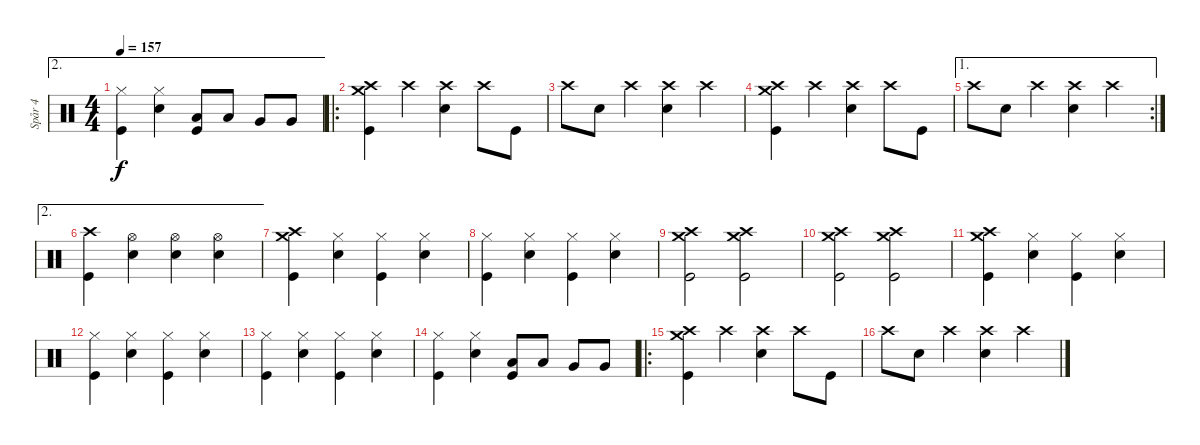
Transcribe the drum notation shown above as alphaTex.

\track ("Spår 4" "Spår 4") {instrument percussion}
\staff {score}
\articulation defaults
\ae 2
\ts (4 4)
\tempo 157
\clef neutral
\ks c
("Hi-Hat (closed)" "Kick (hit)").4{dy f} ("Hi-Hat (closed)" "Snare (hit) 2").4 ("Low Tom (hit)" "Kick (hit)").8 "Low Tom (hit)".8 "Very Low Tom (hit)".8 "Very Low Tom (hit)".8 |
\ro
("Crash medium (hit)" "Crash high (hit)" "Kick (hit)").4 "Crash high (hit)".4 ("Crash high (hit)" "Snare (hit) 2").4 "Crash high (hit)".8 "Kick (hit)".8 |
"Crash high (hit)".8 "Snare (hit) 2".8 "Crash high (hit)".4 ("Crash high (hit)" "Snare (hit) 2").4 "Crash high (hit)".4 |
("Crash medium (hit)" "Crash high (hit)" "Kick (hit)").4 "Crash high (hit)".4 ("Crash high (hit)" "Snare (hit) 2").4 "Crash high (hit)".8 "Kick (hit)".8 |
\ae 1
\rc 2 "Crash high (hit)".8 "Snare (hit) 2".8 "Crash high (hit)".4
("Crash high (hit)" "Snare (hit) 2").4 "Crash high (hit)".4 |
\ae 2
("Crash high (hit)" "Kick (hit)").4 ("Hi-Hat (open)" "Snare (hit) 2").4 ("Hi-Hat (open)" "Snare (hit) 2").4 ("Hi-Hat (open)" "Snare (hit) 2").4 |
("Crash medium (hit)" "Crash high (hit)" "Kick (hit)").4 ("Hi-Hat (closed)" "Snare (hit) 2").4 ("Hi-Hat (closed)" "Kick (hit)").4 ("Hi-Hat (closed)" "Snare (hit) 2").4 |
("Hi-Hat (closed)" "Kick (hit)").4 ("Hi-Hat (closed)" "Snare (hit) 2").4 ("Hi-Hat (closed)" "Kick (hit)").4 ("Hi-Hat (closed)" "Snare (hit) 2").4 |
("Crash medium (hit)" "Crash high (hit)" "Kick (hit)").2 ("Crash medium (hit)" "Crash high (hit)" "Kick (hit)").2 |
("Crash medium (hit)" "Crash high (hit)" "Kick (hit)").2 ("Crash medium (hit)" "Crash high (hit)" "Kick (hit)").2 |
("Crash medium (hit)" "Crash high (hit)" "Kick (hit)").4 ("Hi-Hat (closed)" "Snare (hit) 2").4 ("Hi-Hat (closed)" "Kick (hit)").4 ("Hi-Hat (closed)" "Snare (hit) 2").4 |
("Hi-Hat (closed)" "Kick (hit)").4 ("Hi-Hat (closed)" "Snare (hit) 2").4 ("Hi-Hat (closed)" "Kick (hit)").4 ("Hi-Hat (closed)" "Snare (hit) 2").4 |
("Hi-Hat (closed)" "Kick (hit)").4 ("Hi-Hat (closed)" "Snare (hit) 2").4 ("Hi-Hat (closed)" "Kick (hit)").4 ("Hi-Hat (closed)" "Snare (hit) 2").4 |
("Hi-Hat (closed)" "Kick (hit)").4 ("Hi-Hat (closed)" "Snare (hit) 2").4 ("Low Tom (hit)" "Kick (hit)").8 "Low Tom (hit)".8 "Very Low Tom (hit)".8 "Very Low Tom (hit)".8 |
\ro
("Crash medium (hit)" "Crash high (hit)" "Kick (hit)").4 "Crash high (hit)".4 ("Crash high (hit)" "Snare (hit) 2").4 "Crash high (hit)".8 "Kick (hit)".8 |
"Crash high (hit)".8 "Snare (hit) 2".8 "Crash high (hit)".4 ("Crash high (hit)" "Snare (hit) 2").4 "Crash high (hit)".4
